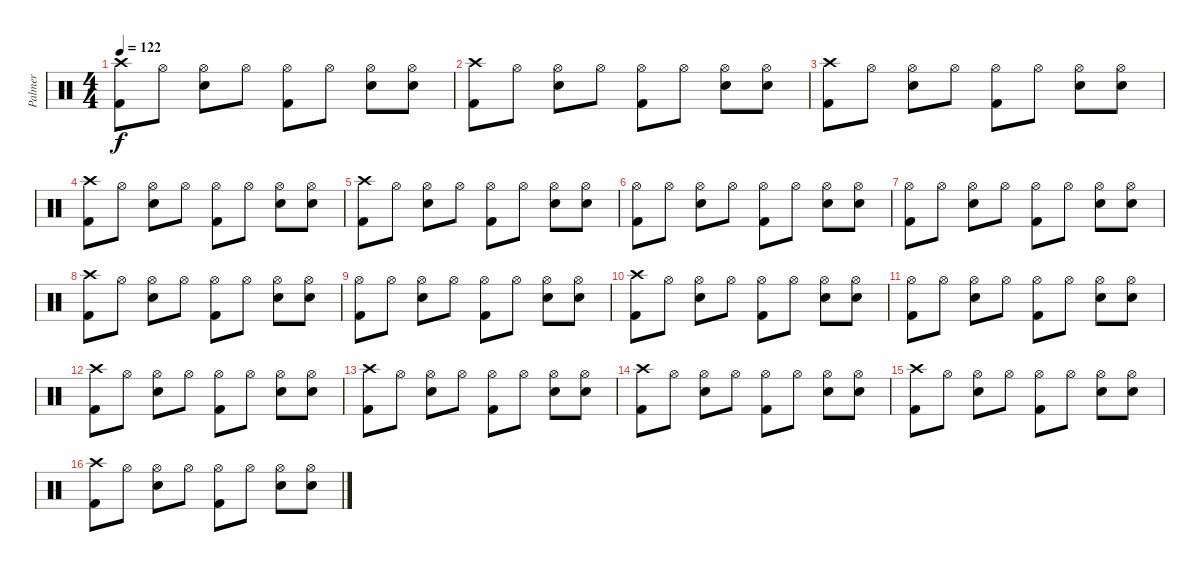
\track ("Palmer" "Palmer") {instrument percussion}
\staff {score}
\articulation defaults
\ts (4 4)
\tempo 122
\clef neutral
\ks c
("Crash high (hit)" "Kick (hit) 2").8{dy f} "Hi-Hat (open)".8 ("Hi-Hat (open)" "Electric Snare (hit)").8 "Hi-Hat (open)".8 ("Hi-Hat (open)" "Kick (hit) 2").8 "Hi-Hat (open)".8 ("Hi-Hat (open)" "Electric Snare (hit)").8 ("Hi-Hat (open)" "Electric Snare (hit)").8 |
("Crash high (hit)" "Kick (hit) 2").8 "Hi-Hat (open)".8 ("Hi-Hat (open)" "Electric Snare (hit)").8 "Hi-Hat (open)".8 ("Hi-Hat (open)" "Kick (hit) 2").8 "Hi-Hat (open)".8 ("Hi-Hat (open)" "Electric Snare (hit)").8 ("Hi-Hat (open)" "Electric Snare (hit)").8 |
("Crash high (hit)" "Kick (hit) 2").8 "Hi-Hat (open)".8 ("Hi-Hat (open)" "Electric Snare (hit)").8 "Hi-Hat (open)".8 ("Hi-Hat (open)" "Kick (hit) 2").8 "Hi-Hat (open)".8 ("Hi-Hat (open)" "Electric Snare (hit)").8 ("Hi-Hat (open)" "Electric Snare (hit)").8 |
("Crash high (hit)" "Kick (hit) 2").8 "Hi-Hat (open)".8 ("Hi-Hat (open)" "Electric Snare (hit)").8 "Hi-Hat (open)".8 ("Hi-Hat (open)" "Kick (hit) 2").8 "Hi-Hat (open)".8 ("Hi-Hat (open)" "Electric Snare (hit)").8 ("Hi-Hat (open)" "Electric Snare (hit)").8 |
("Crash high (hit)" "Kick (hit) 2").8 "Hi-Hat (open)".8 ("Hi-Hat (open)" "Electric Snare (hit)").8 "Hi-Hat (open)".8 ("Hi-Hat (open)" "Kick (hit) 2").8 "Hi-Hat (open)".8 ("Hi-Hat (open)" "Electric Snare (hit)").8 ("Hi-Hat (open)" "Electric Snare (hit)").8 |
("Hi-Hat (open)" "Kick (hit) 2").8 "Hi-Hat (open)".8 ("Hi-Hat (open)" "Electric Snare (hit)").8 "Hi-Hat (open)".8 ("Hi-Hat (open)" "Kick (hit) 2").8 "Hi-Hat (open)".8 ("Hi-Hat (open)" "Electric Snare (hit)").8 ("Hi-Hat (open)" "Electric Snare (hit)").8 |
("Hi-Hat (open)" "Kick (hit) 2").8 "Hi-Hat (open)".8 ("Hi-Hat (open)" "Electric Snare (hit)").8 "Hi-Hat (open)".8 ("Hi-Hat (open)" "Kick (hit) 2").8 "Hi-Hat (open)".8 ("Hi-Hat (open)" "Electric Snare (hit)").8 ("Hi-Hat (open)" "Electric Snare (hit)").8 |
("Crash high (hit)" "Kick (hit) 2").8 "Hi-Hat (open)".8 ("Hi-Hat (open)" "Electric Snare (hit)").8 "Hi-Hat (open)".8 ("Hi-Hat (open)" "Kick (hit) 2").8 "Hi-Hat (open)".8 ("Hi-Hat (open)" "Electric Snare (hit)").8 ("Hi-Hat (open)" "Electric Snare (hit)").8 |
("Hi-Hat (open)" "Kick (hit) 2").8 "Hi-Hat (open)".8 ("Hi-Hat (open)" "Electric Snare (hit)").8 "Hi-Hat (open)".8 ("Hi-Hat (open)" "Kick (hit) 2").8 "Hi-Hat (open)".8 ("Hi-Hat (open)" "Electric Snare (hit)").8 ("Hi-Hat (open)" "Electric Snare (hit)").8 |
("Crash high (hit)" "Kick (hit) 2").8 "Hi-Hat (open)".8 ("Hi-Hat (open)" "Electric Snare (hit)").8 "Hi-Hat (open)".8 ("Hi-Hat (open)" "Kick (hit) 2").8 "Hi-Hat (open)".8 ("Hi-Hat (open)" "Electric Snare (hit)").8 ("Hi-Hat (open)" "Electric Snare (hit)").8 |
("Hi-Hat (open)" "Kick (hit) 2").8 "Hi-Hat (open)".8 ("Hi-Hat (open)" "Electric Snare (hit)").8 "Hi-Hat (open)".8 ("Hi-Hat (open)" "Kick (hit) 2").8 "Hi-Hat (open)".8 ("Hi-Hat (open)" "Electric Snare (hit)").8 ("Hi-Hat (open)" "Electric Snare (hit)").8 |
("Crash high (hit)" "Kick (hit) 2").8 "Hi-Hat (open)".8 ("Hi-Hat (open)" "Electric Snare (hit)").8 "Hi-Hat (open)".8 ("Hi-Hat (open)" "Kick (hit) 2").8 "Hi-Hat (open)".8 ("Hi-Hat (open)" "Electric Snare (hit)").8 ("Hi-Hat (open)" "Electric Snare (hit)").8 |
("Crash high (hit)" "Kick (hit) 2").8 "Hi-Hat (open)".8 ("Hi-Hat (open)" "Electric Snare (hit)").8 "Hi-Hat (open)".8 ("Hi-Hat (open)" "Kick (hit) 2").8 "Hi-Hat (open)".8 ("Hi-Hat (open)" "Electric Snare (hit)").8 ("Hi-Hat (open)" "Electric Snare (hit)").8 |
("Crash high (hit)" "Kick (hit) 2").8 "Hi-Hat (open)".8 ("Hi-Hat (open)" "Electric Snare (hit)").8 "Hi-Hat (open)".8 ("Hi-Hat (open)" "Kick (hit) 2").8 "Hi-Hat (open)".8 ("Hi-Hat (open)" "Electric Snare (hit)").8 ("Hi-Hat (open)" "Electric Snare (hit)").8 |
("Crash high (hit)" "Kick (hit) 2").8 "Hi-Hat (open)".8 ("Hi-Hat (open)" "Electric Snare (hit)").8 "Hi-Hat (open)".8 ("Hi-Hat (open)" "Kick (hit) 2").8 "Hi-Hat (open)".8 ("Hi-Hat (open)" "Electric Snare (hit)").8 ("Hi-Hat (open)" "Electric Snare (hit)").8 |
("Crash high (hit)" "Kick (hit) 2").8 "Hi-Hat (open)".8 ("Hi-Hat (open)" "Electric Snare (hit)").8 "Hi-Hat (open)".8 ("Hi-Hat (open)" "Kick (hit) 2").8 "Hi-Hat (open)".8 ("Hi-Hat (open)" "Electric Snare (hit)").8 ("Hi-Hat (open)" "Electric Snare (hit)").8
